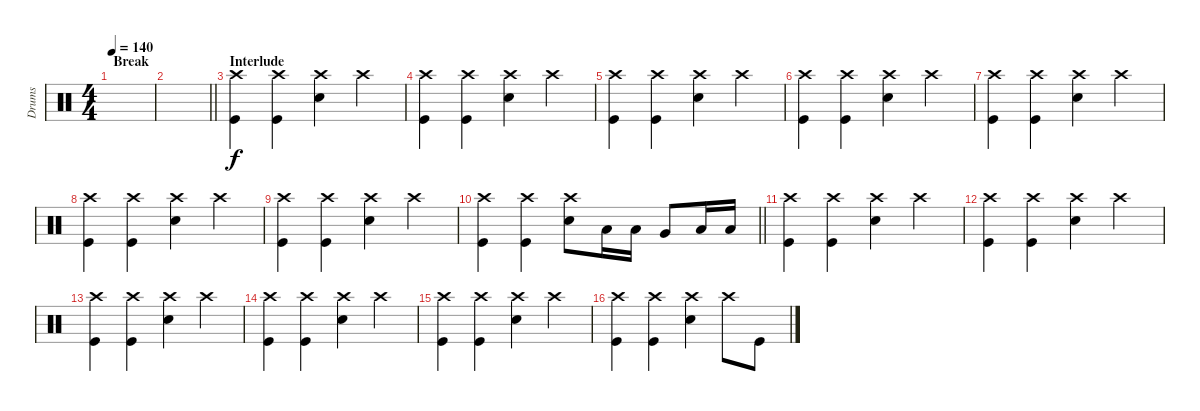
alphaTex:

\track ("Drums" "Drums") {instrument percussion}
\staff {score}
\articulation defaults
\ts (4 4)
\section ("" "Break")
\tempo 140
\clef neutral
\ks c
|
\barLineRight lightlight
|
\section ("" "Interlude")
("Kick (hit)" "Crash high (hit)").4 ("Kick (hit)" "Crash high (hit)").4 ("Snare (hit) 2" "Crash high (hit)").4 "Crash high (hit)".4 |
("Kick (hit)" "Crash high (hit)").4 ("Kick (hit)" "Crash high (hit)").4 ("Snare (hit) 2" "Crash high (hit)").4 "Crash high (hit)".4 |
("Kick (hit)" "Crash high (hit)").4 ("Kick (hit)" "Crash high (hit)").4 ("Snare (hit) 2" "Crash high (hit)").4 "Crash high (hit)".4 |
("Kick (hit)" "Crash high (hit)").4 ("Kick (hit)" "Crash high (hit)").4 ("Snare (hit) 2" "Crash high (hit)").4 "Crash high (hit)".4 |
("Kick (hit)" "Crash high (hit)").4 ("Kick (hit)" "Crash high (hit)").4 ("Snare (hit) 2" "Crash high (hit)").4 "Crash high (hit)".4 |
("Kick (hit)" "Crash high (hit)").4 ("Kick (hit)" "Crash high (hit)").4 ("Snare (hit) 2" "Crash high (hit)").4 "Crash high (hit)".4 |
("Kick (hit)" "Crash high (hit)").4 ("Kick (hit)" "Crash high (hit)").4 ("Snare (hit) 2" "Crash high (hit)").4 "Crash high (hit)".4 |
\barLineRight lightlight
("Kick (hit)" "Crash high (hit)").4 ("Kick (hit)" "Crash high (hit)").4 ("Snare (hit) 2" "Crash high (hit)").8 "Low Tom (hit)".16 "Low Tom (hit)".16 "Very Low Tom (hit)".8 "Low Floor Tom (hit)".16 "Low Floor Tom (hit)".16 |
("Kick (hit)" "Crash high (hit)").4 ("Kick (hit)" "Crash high (hit)").4 ("Snare (hit) 2" "Crash high (hit)").4 "Crash high (hit)".4 |
("Kick (hit)" "Crash high (hit)").4 ("Kick (hit)" "Crash high (hit)").4 ("Snare (hit) 2" "Crash high (hit)").4 "Crash high (hit)".4 |
("Kick (hit)" "Crash high (hit)").4 ("Kick (hit)" "Crash high (hit)").4 ("Snare (hit) 2" "Crash high (hit)").4 "Crash high (hit)".4 |
("Kick (hit)" "Crash high (hit)").4 ("Kick (hit)" "Crash high (hit)").4 ("Snare (hit) 2" "Crash high (hit)").4 "Crash high (hit)".4 |
("Kick (hit)" "Crash high (hit)").4 ("Kick (hit)" "Crash high (hit)").4 ("Snare (hit) 2" "Crash high (hit)").4 "Crash high (hit)".4 |
("Kick (hit)" "Crash high (hit)").4 ("Kick (hit)" "Crash high (hit)").4 ("Snare (hit) 2" "Crash high (hit)").4 "Crash high (hit)".8 "Kick (hit)".8{dy f}
